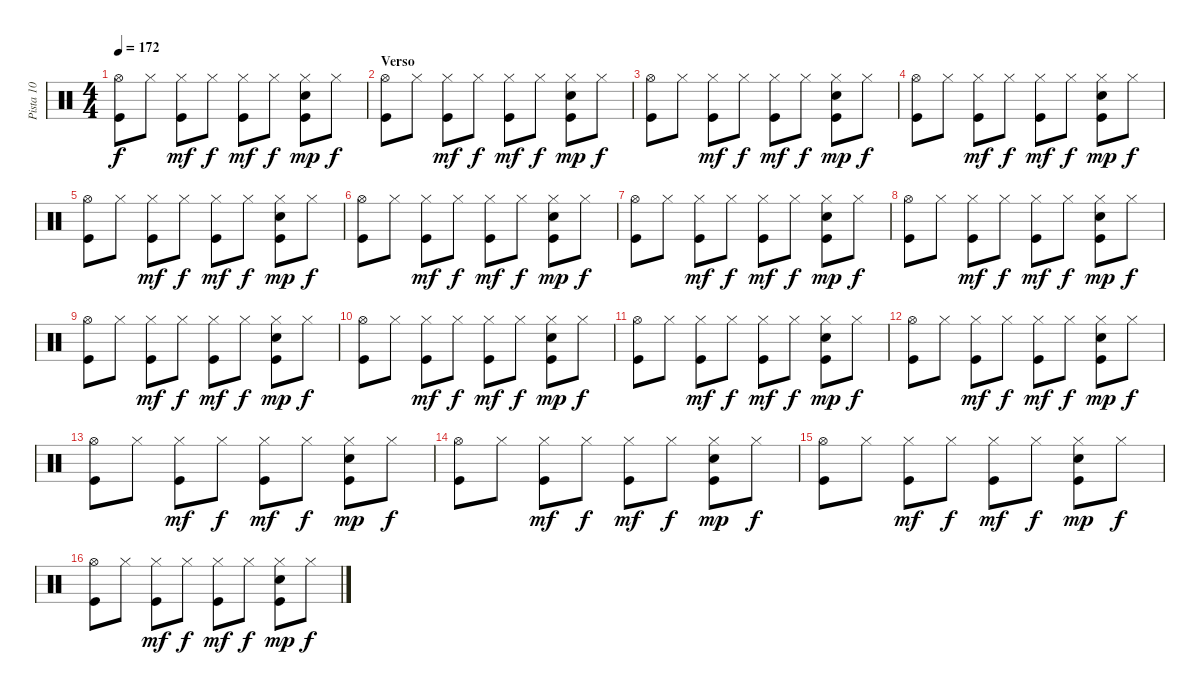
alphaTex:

\track ("Pista 10" "Pista 10") {instrument percussion}
\staff {score}
\articulation defaults
\ts (4 4)
\tempo 172
\clef neutral
\ks c
("Hi-Hat (open)" "Kick (hit)").8{dy f} "Hi-Hat (closed)".8 ("Kick (hit)" "Hi-Hat (closed)").8{dy mf} "Hi-Hat (closed)".8{dy f} ("Kick (hit)" "Hi-Hat (closed)").8{dy mf} "Hi-Hat (closed)".8{dy f} ("Snare (hit) 2" "Hi-Hat (closed)" "Kick (hit)").8{dy mp} "Hi-Hat (closed)".8{dy f} |
\section ("" "Verso")
("Kick (hit)" "Hi-Hat (open)").8 "Hi-Hat (closed)".8 ("Hi-Hat (closed)" "Kick (hit)").8{dy mf} "Hi-Hat (closed)".8{dy f} ("Hi-Hat (closed)" "Kick (hit)").8{dy mf} "Hi-Hat (closed)".8{dy f} ("Hi-Hat (closed)" "Kick (hit)" "Snare (hit) 2").8{dy mp} "Hi-Hat (closed)".8{dy f} |
("Hi-Hat (open)" "Kick (hit)").8 "Hi-Hat (closed)".8 ("Kick (hit)" "Hi-Hat (closed)").8{dy mf} "Hi-Hat (closed)".8{dy f} ("Kick (hit)" "Hi-Hat (closed)").8{dy mf} "Hi-Hat (closed)".8{dy f} ("Snare (hit) 2" "Hi-Hat (closed)" "Kick (hit)").8{dy mp} "Hi-Hat (closed)".8{dy f} |
("Kick (hit)" "Hi-Hat (open)").8 "Hi-Hat (closed)".8 ("Hi-Hat (closed)" "Kick (hit)").8{dy mf} "Hi-Hat (closed)".8{dy f} ("Hi-Hat (closed)" "Kick (hit)").8{dy mf} "Hi-Hat (closed)".8{dy f} ("Hi-Hat (closed)" "Kick (hit)" "Snare (hit) 2").8{dy mp} "Hi-Hat (closed)".8{dy f} |
("Hi-Hat (open)" "Kick (hit)").8 "Hi-Hat (closed)".8 ("Kick (hit)" "Hi-Hat (closed)").8{dy mf} "Hi-Hat (closed)".8{dy f} ("Kick (hit)" "Hi-Hat (closed)").8{dy mf} "Hi-Hat (closed)".8{dy f} ("Snare (hit) 2" "Hi-Hat (closed)" "Kick (hit)").8{dy mp} "Hi-Hat (closed)".8{dy f} |
("Kick (hit)" "Hi-Hat (open)").8 "Hi-Hat (closed)".8 ("Hi-Hat (closed)" "Kick (hit)").8{dy mf} "Hi-Hat (closed)".8{dy f} ("Hi-Hat (closed)" "Kick (hit)").8{dy mf} "Hi-Hat (closed)".8{dy f} ("Hi-Hat (closed)" "Kick (hit)" "Snare (hit) 2").8{dy mp} "Hi-Hat (closed)".8{dy f} |
("Hi-Hat (open)" "Kick (hit)").8 "Hi-Hat (closed)".8 ("Kick (hit)" "Hi-Hat (closed)").8{dy mf} "Hi-Hat (closed)".8{dy f} ("Kick (hit)" "Hi-Hat (closed)").8{dy mf} "Hi-Hat (closed)".8{dy f} ("Snare (hit) 2" "Hi-Hat (closed)" "Kick (hit)").8{dy mp} "Hi-Hat (closed)".8{dy f} |
("Kick (hit)" "Hi-Hat (open)").8 "Hi-Hat (closed)".8 ("Hi-Hat (closed)" "Kick (hit)").8{dy mf} "Hi-Hat (closed)".8{dy f} ("Hi-Hat (closed)" "Kick (hit)").8{dy mf} "Hi-Hat (closed)".8{dy f} ("Hi-Hat (closed)" "Kick (hit)" "Snare (hit) 2").8{dy mp} "Hi-Hat (closed)".8{dy f} |
("Hi-Hat (open)" "Kick (hit)").8 "Hi-Hat (closed)".8 ("Kick (hit)" "Hi-Hat (closed)").8{dy mf} "Hi-Hat (closed)".8{dy f} ("Kick (hit)" "Hi-Hat (closed)").8{dy mf} "Hi-Hat (closed)".8{dy f} ("Snare (hit) 2" "Hi-Hat (closed)" "Kick (hit)").8{dy mp} "Hi-Hat (closed)".8{dy f} |
("Kick (hit)" "Hi-Hat (open)").8 "Hi-Hat (closed)".8 ("Hi-Hat (closed)" "Kick (hit)").8{dy mf} "Hi-Hat (closed)".8{dy f} ("Hi-Hat (closed)" "Kick (hit)").8{dy mf} "Hi-Hat (closed)".8{dy f} ("Hi-Hat (closed)" "Kick (hit)" "Snare (hit) 2").8{dy mp} "Hi-Hat (closed)".8{dy f} |
("Hi-Hat (open)" "Kick (hit)").8 "Hi-Hat (closed)".8 ("Kick (hit)" "Hi-Hat (closed)").8{dy mf} "Hi-Hat (closed)".8{dy f} ("Kick (hit)" "Hi-Hat (closed)").8{dy mf} "Hi-Hat (closed)".8{dy f} ("Snare (hit) 2" "Hi-Hat (closed)" "Kick (hit)").8{dy mp} "Hi-Hat (closed)".8{dy f} |
("Kick (hit)" "Hi-Hat (open)").8 "Hi-Hat (closed)".8 ("Hi-Hat (closed)" "Kick (hit)").8{dy mf} "Hi-Hat (closed)".8{dy f} ("Hi-Hat (closed)" "Kick (hit)").8{dy mf} "Hi-Hat (closed)".8{dy f} ("Hi-Hat (closed)" "Kick (hit)" "Snare (hit) 2").8{dy mp} "Hi-Hat (closed)".8{dy f} |
("Hi-Hat (open)" "Kick (hit)").8 "Hi-Hat (closed)".8 ("Kick (hit)" "Hi-Hat (closed)").8{dy mf} "Hi-Hat (closed)".8{dy f} ("Kick (hit)" "Hi-Hat (closed)").8{dy mf} "Hi-Hat (closed)".8{dy f} ("Snare (hit) 2" "Hi-Hat (closed)" "Kick (hit)").8{dy mp} "Hi-Hat (closed)".8{dy f} |
("Kick (hit)" "Hi-Hat (open)").8 "Hi-Hat (closed)".8 ("Hi-Hat (closed)" "Kick (hit)").8{dy mf} "Hi-Hat (closed)".8{dy f} ("Hi-Hat (closed)" "Kick (hit)").8{dy mf} "Hi-Hat (closed)".8{dy f} ("Hi-Hat (closed)" "Kick (hit)" "Snare (hit) 2").8{dy mp} "Hi-Hat (closed)".8{dy f} |
("Hi-Hat (open)" "Kick (hit)").8 "Hi-Hat (closed)".8 ("Kick (hit)" "Hi-Hat (closed)").8{dy mf} "Hi-Hat (closed)".8{dy f} ("Kick (hit)" "Hi-Hat (closed)").8{dy mf} "Hi-Hat (closed)".8{dy f} ("Snare (hit) 2" "Hi-Hat (closed)" "Kick (hit)").8{dy mp} "Hi-Hat (closed)".8{dy f} |
("Kick (hit)" "Hi-Hat (open)").8 "Hi-Hat (closed)".8 ("Hi-Hat (closed)" "Kick (hit)").8{dy mf} "Hi-Hat (closed)".8{dy f} ("Hi-Hat (closed)" "Kick (hit)").8{dy mf} "Hi-Hat (closed)".8{dy f} ("Hi-Hat (closed)" "Kick (hit)" "Snare (hit) 2").8{dy mp} "Hi-Hat (closed)".8{dy f}
